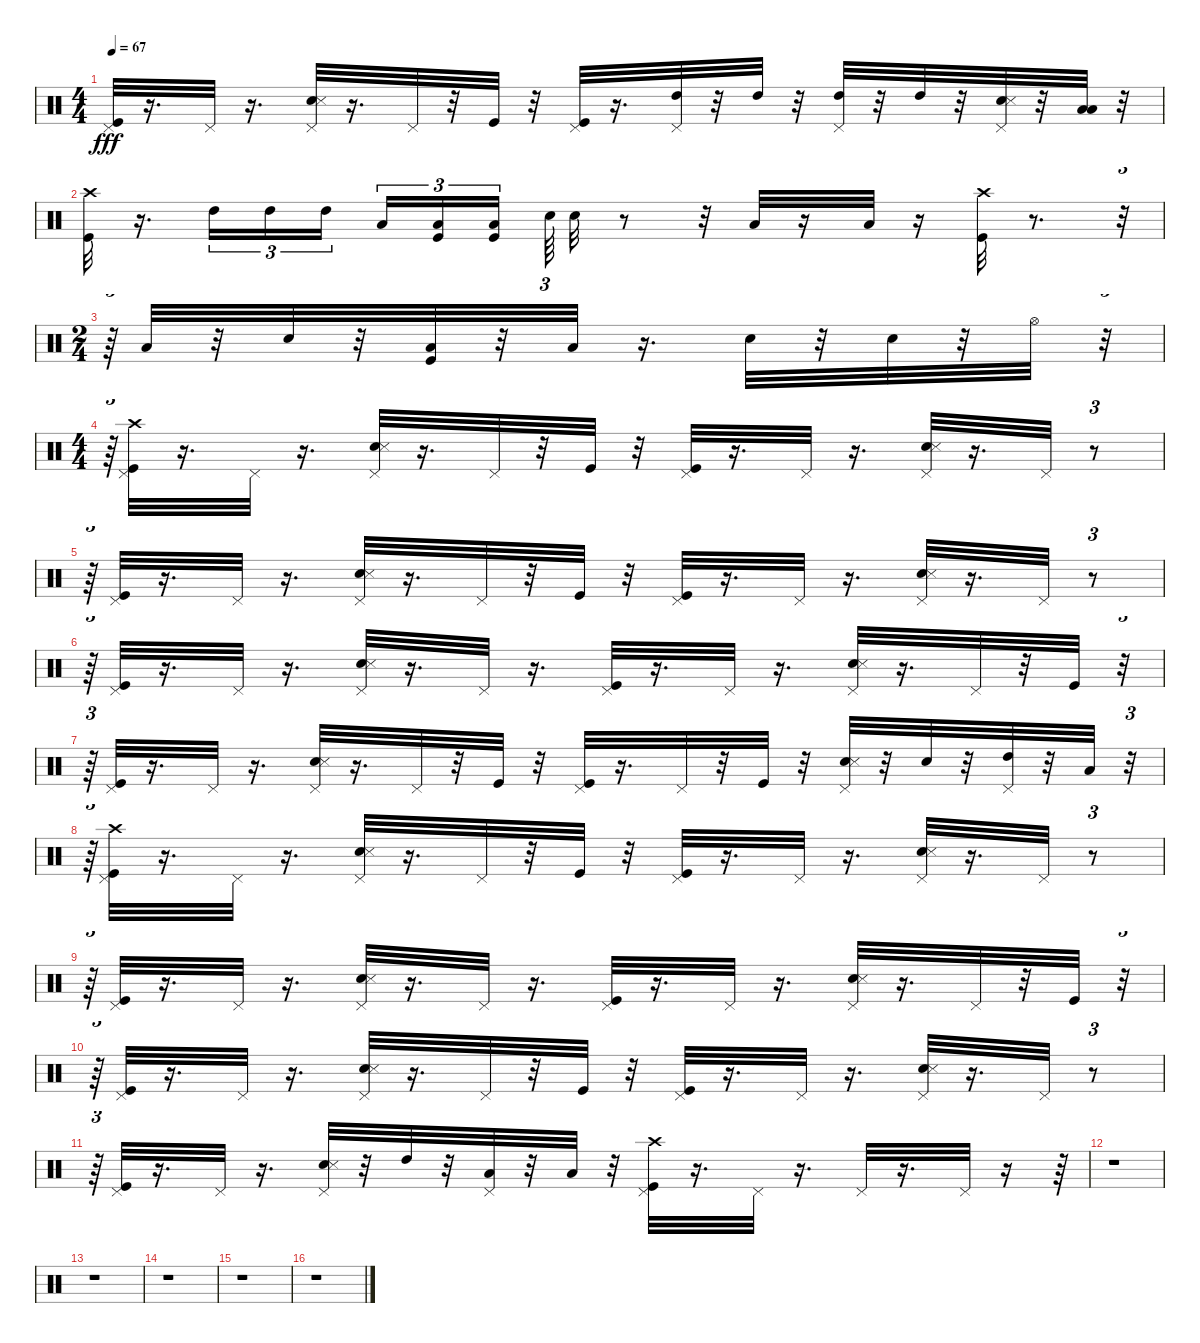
\track "" {instrument percussion}
\staff {score}
\articulation defaults
\ts (4 4)
\tempo 67
\clef neutral
\ks c
("Kick (hit)" "Pedal Hi-Hat (hit)").32{dy fff} r.16{d} "Pedal Hi-Hat (hit)".32 r.16{d} ("Electric Snare (hit)" "Pedal Hi-Hat (hit)" "Snare (side stick) 3").32 r.16{d} "Pedal Hi-Hat (hit)".32 r.32 "Kick (hit)".32 r.32 ("Kick (hit)" "Pedal Hi-Hat (hit)").32 r.16{d} ("Pedal Hi-Hat (hit)" "High Tom (hit)").32 r.32 "High Tom (hit)".32 r.32 ("Pedal Hi-Hat (hit)" "High Tom (hit)").32 r.32 "High Tom (hit)".32 r.32 ("Electric Snare (hit)" "Pedal Hi-Hat (hit)" "Snare (side stick) 3").32 r.32 ("Low Tom (hit)" "Low Floor Tom (hit)").32 r.32 |
("Kick (hit)" "Crash high (hit)").32 r.16{d} "High Tom (hit)".16{tu (3 2)} "High Tom (hit)".16{tu (3 2)} "High Tom (hit)".16{tu (3 2)} "Low Tom (hit)".16{tu (3 2)} ("Kick (hit)" "Low Tom (hit)").16{tu (3 2)} ("Kick (hit)" "Low Tom (hit)").16{tu (3 2) beam splitsecondary} "Electric Snare (hit)".64{tu (3 2)} "Electric Snare (hit)".32 r.8 r.32 "Low Tom (hit)".32 r.16 "Low Tom (hit)".32 r.16 ("Kick (hit)" "Crash high (hit)").32 r.8{d} r.32{tu (3 2)} |
\ts (2 4)
r.64{tu (3 2)} "Low Tom (hit)".32 r.32 "Electric Snare (hit)".32 r.32 ("Kick (hit)" "Low Tom (hit)").32 r.32 "Low Tom (hit)".32 r.16{d} "Electric Snare (hit)".32 r.32 "Electric Snare (hit)".32 r.32 "Hi-Hat (open)".32 r.32{tu (3 2)} |
\ts (4 4)
r.64{tu (3 2)} ("Kick (hit)" "Pedal Hi-Hat (hit)" "Crash high (hit)").32 r.16{d} "Pedal Hi-Hat (hit)".32 r.16{d} ("Electric Snare (hit)" "Pedal Hi-Hat (hit)" "Snare (side stick) 3").32 r.16{d} "Pedal Hi-Hat (hit)".32 r.32 "Kick (hit)".32 r.32 ("Kick (hit)" "Pedal Hi-Hat (hit)").32 r.16{d} "Pedal Hi-Hat (hit)".32 r.16{d} ("Electric Snare (hit)" "Pedal Hi-Hat (hit)" "Snare (side stick) 3").32 r.16{d} "Pedal Hi-Hat (hit)".32 r.8{tu (3 2)} |
r.64{tu (3 2)} ("Kick (hit)" "Pedal Hi-Hat (hit)").32 r.16{d} "Pedal Hi-Hat (hit)".32 r.16{d} ("Electric Snare (hit)" "Pedal Hi-Hat (hit)" "Snare (side stick) 3").32 r.16{d} "Pedal Hi-Hat (hit)".32 r.32 "Kick (hit)".32 r.32 ("Kick (hit)" "Pedal Hi-Hat (hit)").32 r.16{d} "Pedal Hi-Hat (hit)".32 r.16{d} ("Electric Snare (hit)" "Pedal Hi-Hat (hit)" "Snare (side stick) 3").32 r.16{d} "Pedal Hi-Hat (hit)".32 r.8{tu (3 2)} |
r.64{tu (3 2)} ("Kick (hit)" "Pedal Hi-Hat (hit)").32 r.16{d} "Pedal Hi-Hat (hit)".32 r.16{d} ("Electric Snare (hit)" "Pedal Hi-Hat (hit)" "Snare (side stick) 3").32 r.16{d} "Pedal Hi-Hat (hit)".32 r.16{d} ("Kick (hit)" "Pedal Hi-Hat (hit)").32 r.16{d} "Pedal Hi-Hat (hit)".32 r.16{d} ("Electric Snare (hit)" "Pedal Hi-Hat (hit)" "Snare (side stick) 3").32 r.16{d} "Pedal Hi-Hat (hit)".32 r.32 "Kick (hit)".32 r.32{tu (3 2)} |
r.64{tu (3 2)} ("Kick (hit)" "Pedal Hi-Hat (hit)").32 r.16{d} "Pedal Hi-Hat (hit)".32 r.16{d} ("Electric Snare (hit)" "Pedal Hi-Hat (hit)" "Snare (side stick) 3").32 r.16{d} "Pedal Hi-Hat (hit)".32 r.32 "Kick (hit)".32 r.32 ("Kick (hit)" "Pedal Hi-Hat (hit)").32 r.16{d} "Pedal Hi-Hat (hit)".32 r.32 "Kick (hit)".32 r.32 ("Electric Snare (hit)" "Pedal Hi-Hat (hit)" "Snare (side stick) 3").32 r.32 "Electric Snare (hit)".32 r.32 ("Pedal Hi-Hat (hit)" "High Tom (hit)").32 r.32 "Low Tom (hit)".32 r.32{tu (3 2)} |
r.64{tu (3 2)} ("Kick (hit)" "Pedal Hi-Hat (hit)" "Crash high (hit)").32 r.16{d} "Pedal Hi-Hat (hit)".32 r.16{d} ("Electric Snare (hit)" "Pedal Hi-Hat (hit)" "Snare (side stick) 3").32 r.16{d} "Pedal Hi-Hat (hit)".32 r.32 "Kick (hit)".32 r.32 ("Kick (hit)" "Pedal Hi-Hat (hit)").32 r.16{d} "Pedal Hi-Hat (hit)".32 r.16{d} ("Electric Snare (hit)" "Pedal Hi-Hat (hit)" "Snare (side stick) 3").32 r.16{d} "Pedal Hi-Hat (hit)".32 r.8{tu (3 2)} |
r.64{tu (3 2)} ("Kick (hit)" "Pedal Hi-Hat (hit)").32 r.16{d} "Pedal Hi-Hat (hit)".32 r.16{d} ("Electric Snare (hit)" "Pedal Hi-Hat (hit)" "Snare (side stick) 3").32 r.16{d} "Pedal Hi-Hat (hit)".32 r.16{d} ("Kick (hit)" "Pedal Hi-Hat (hit)").32 r.16{d} "Pedal Hi-Hat (hit)".32 r.16{d} ("Electric Snare (hit)" "Pedal Hi-Hat (hit)" "Snare (side stick) 3").32 r.16{d} "Pedal Hi-Hat (hit)".32 r.32 "Kick (hit)".32 r.32{tu (3 2)} |
r.64{tu (3 2)} ("Kick (hit)" "Pedal Hi-Hat (hit)").32 r.16{d} "Pedal Hi-Hat (hit)".32 r.16{d} ("Electric Snare (hit)" "Pedal Hi-Hat (hit)" "Snare (side stick) 3").32 r.16{d} "Pedal Hi-Hat (hit)".32 r.32 "Kick (hit)".32 r.32 ("Kick (hit)" "Pedal Hi-Hat (hit)").32 r.16{d} "Pedal Hi-Hat (hit)".32 r.16{d} ("Electric Snare (hit)" "Pedal Hi-Hat (hit)" "Snare (side stick) 3").32 r.16{d} "Pedal Hi-Hat (hit)".32 r.8{tu (3 2)} |
r.64{tu (3 2)} ("Kick (hit)" "Pedal Hi-Hat (hit)").32 r.16{d} "Pedal Hi-Hat (hit)".32 r.16{d} ("Electric Snare (hit)" "Pedal Hi-Hat (hit)" "Snare (side stick) 3").32 r.32 "High Tom (hit)".32 r.32 ("Pedal Hi-Hat (hit)" "Low Tom (hit)").32 r.32 "Low Floor Tom (hit)".32 r.32 ("Kick (hit)" "Pedal Hi-Hat (hit)" "Crash high (hit)").32 r.16{d} "Pedal Hi-Hat (hit)".32 r.16{d} "Pedal Hi-Hat (hit)".32 r.16{d} "Pedal Hi-Hat (hit)".32 r.16 r.64 |
r.1 |
r.1 |
r.1 |
r.1 |
r.1
